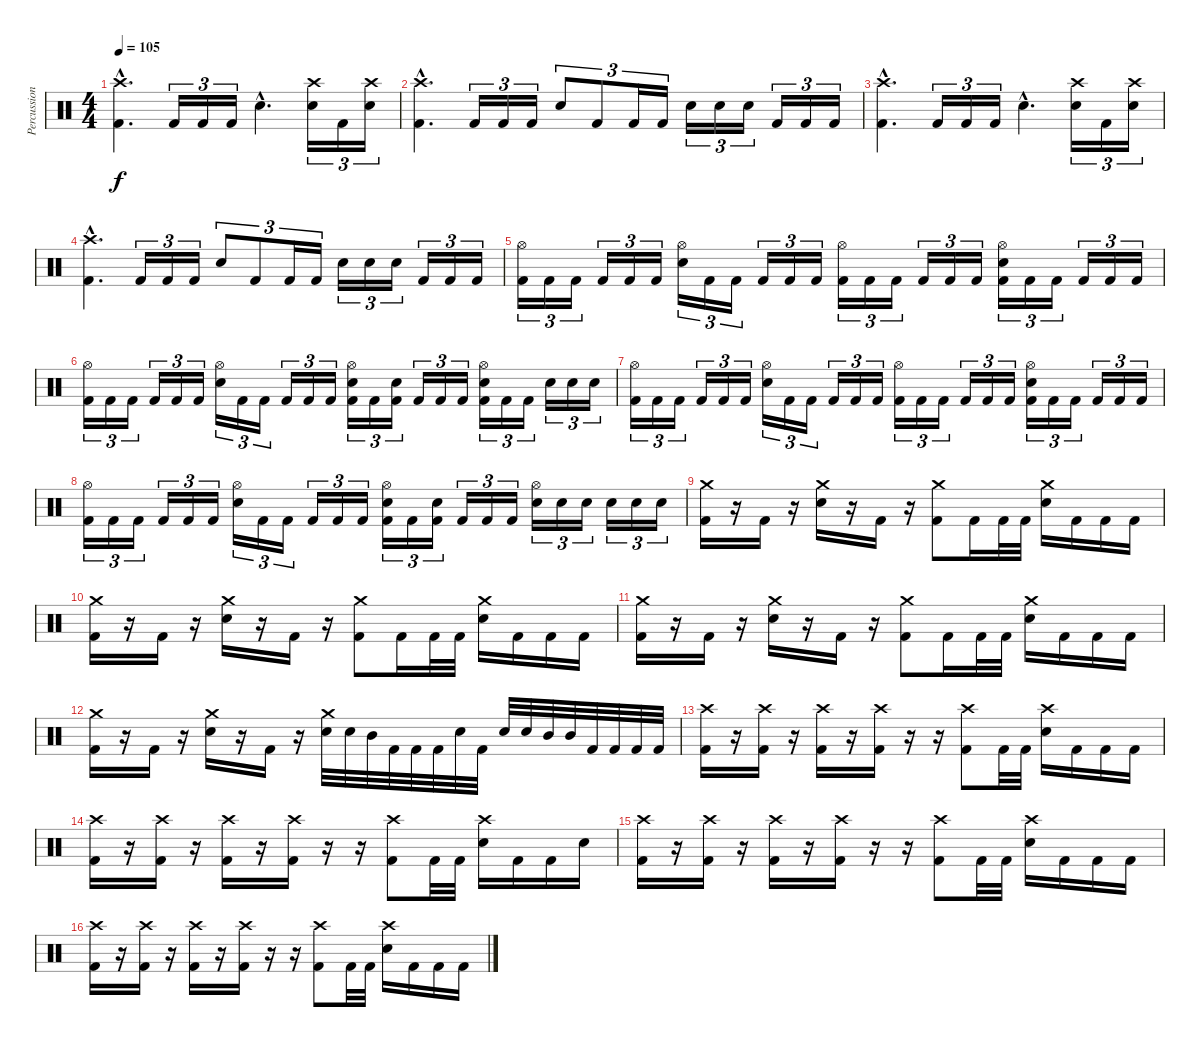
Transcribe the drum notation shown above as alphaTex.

\track ("Percussion" "Percussion") {instrument percussion}
\staff {score}
\articulation defaults
\ts (4 4)
\tempo 105
\clef neutral
\ks c
("Crash high (hit)"{hac} "Kick (hit) 2"{hac}).4{d dy f} "Kick (hit) 2".16{tu (3 2)} "Kick (hit) 2".16{tu (3 2)} "Kick (hit) 2".16{tu (3 2)} "Electric Snare (hit)"{hac}.4{d} ("Crash high (hit)" "Electric Snare (hit)").16{tu (3 2)} "Kick (hit) 2".16{tu (3 2)} ("Crash high (hit)" "Electric Snare (hit)").16{tu (3 2)} |
("Crash high (hit)"{hac} "Kick (hit) 2"{hac}).4{d} "Kick (hit) 2".16{tu (3 2)} "Kick (hit) 2".16{tu (3 2)} "Kick (hit) 2".16{tu (3 2)} "Electric Snare (hit)".8{tu (3 2)} "Kick (hit) 2".8{tu (3 2)} "Kick (hit) 2".16{tu (3 2)} "Kick (hit) 2".16{tu (3 2)} "Electric Snare (hit)".16{tu (3 2)} "Electric Snare (hit)".16{tu (3 2)} "Electric Snare (hit)".16{tu (3 2)} "Kick (hit) 2".16{tu (3 2)} "Kick (hit) 2".16{tu (3 2)} "Kick (hit) 2".16{tu (3 2)} |
("Crash high (hit)"{hac} "Kick (hit) 2"{hac}).4{d} "Kick (hit) 2".16{tu (3 2)} "Kick (hit) 2".16{tu (3 2)} "Kick (hit) 2".16{tu (3 2)} "Electric Snare (hit)"{hac}.4{d} ("Crash high (hit)" "Electric Snare (hit)").16{tu (3 2)} "Kick (hit) 2".16{tu (3 2)} ("Crash high (hit)" "Electric Snare (hit)").16{tu (3 2)} |
("Crash high (hit)"{hac} "Kick (hit) 2"{hac}).4{d} "Kick (hit) 2".16{tu (3 2)} "Kick (hit) 2".16{tu (3 2)} "Kick (hit) 2".16{tu (3 2)} "Electric Snare (hit)".8{tu (3 2)} "Kick (hit) 2".8{tu (3 2)} "Kick (hit) 2".16{tu (3 2)} "Kick (hit) 2".16{tu (3 2)} "Electric Snare (hit)".16{tu (3 2)} "Electric Snare (hit)".16{tu (3 2)} "Electric Snare (hit)".16{tu (3 2)} "Kick (hit) 2".16{tu (3 2)} "Kick (hit) 2".16{tu (3 2)} "Kick (hit) 2".16{tu (3 2)} |
("Hi-Hat (open)" "Kick (hit) 2").16{tu (3 2)} "Kick (hit) 2".16{tu (3 2)} "Kick (hit) 2".16{tu (3 2)} "Kick (hit) 2".16{tu (3 2)} "Kick (hit) 2".16{tu (3 2)} "Kick (hit) 2".16{tu (3 2)} ("Hi-Hat (open)" "Electric Snare (hit)").16{tu (3 2)} "Kick (hit) 2".16{tu (3 2)} "Kick (hit) 2".16{tu (3 2)} "Kick (hit) 2".16{tu (3 2)} "Kick (hit) 2".16{tu (3 2)} "Kick (hit) 2".16{tu (3 2)} ("Hi-Hat (open)" "Kick (hit) 2").16{tu (3 2)} "Kick (hit) 2".16{tu (3 2)} "Kick (hit) 2".16{tu (3 2)} "Kick (hit) 2".16{tu (3 2)} "Kick (hit) 2".16{tu (3 2)} "Kick (hit) 2".16{tu (3 2)} ("Hi-Hat (open)" "Electric Snare (hit)" "Kick (hit) 2").16{tu (3 2)} "Kick (hit) 2".16{tu (3 2)} "Kick (hit) 2".16{tu (3 2)} "Kick (hit) 2".16{tu (3 2)} "Kick (hit) 2".16{tu (3 2)} "Kick (hit) 2".16{tu (3 2)} |
("Hi-Hat (open)" "Kick (hit) 2").16{tu (3 2)} "Kick (hit) 2".16{tu (3 2)} "Kick (hit) 2".16{tu (3 2)} "Kick (hit) 2".16{tu (3 2)} "Kick (hit) 2".16{tu (3 2)} "Kick (hit) 2".16{tu (3 2)} ("Hi-Hat (open)" "Electric Snare (hit)").16{tu (3 2)} "Kick (hit) 2".16{tu (3 2)} "Kick (hit) 2".16{tu (3 2)} "Kick (hit) 2".16{tu (3 2)} "Kick (hit) 2".16{tu (3 2)} "Kick (hit) 2".16{tu (3 2)} ("Hi-Hat (open)" "Electric Snare (hit)" "Kick (hit) 2").16{tu (3 2)} "Kick (hit) 2".16{tu (3 2)} ("Electric Snare (hit)" "Kick (hit) 2").16{tu (3 2)} "Kick (hit) 2".16{tu (3 2)} "Kick (hit) 2".16{tu (3 2)} "Kick (hit) 2".16{tu (3 2)} ("Hi-Hat (open)" "Electric Snare (hit)" "Kick (hit) 2").16{tu (3 2)} "Kick (hit) 2".16{tu (3 2)} "Kick (hit) 2".16{tu (3 2)} "Electric Snare (hit)".16{tu (3 2)} "Electric Snare (hit)".16{tu (3 2)} "Electric Snare (hit)".16{tu (3 2)} |
("Hi-Hat (open)" "Kick (hit) 2").16{tu (3 2)} "Kick (hit) 2".16{tu (3 2)} "Kick (hit) 2".16{tu (3 2)} "Kick (hit) 2".16{tu (3 2)} "Kick (hit) 2".16{tu (3 2)} "Kick (hit) 2".16{tu (3 2)} ("Hi-Hat (open)" "Electric Snare (hit)").16{tu (3 2)} "Kick (hit) 2".16{tu (3 2)} "Kick (hit) 2".16{tu (3 2)} "Kick (hit) 2".16{tu (3 2)} "Kick (hit) 2".16{tu (3 2)} "Kick (hit) 2".16{tu (3 2)} ("Hi-Hat (open)" "Kick (hit) 2").16{tu (3 2)} "Kick (hit) 2".16{tu (3 2)} "Kick (hit) 2".16{tu (3 2)} "Kick (hit) 2".16{tu (3 2)} "Kick (hit) 2".16{tu (3 2)} "Kick (hit) 2".16{tu (3 2)} ("Hi-Hat (open)" "Electric Snare (hit)" "Kick (hit) 2").16{tu (3 2)} "Kick (hit) 2".16{tu (3 2)} "Kick (hit) 2".16{tu (3 2)} "Kick (hit) 2".16{tu (3 2)} "Kick (hit) 2".16{tu (3 2)} "Kick (hit) 2".16{tu (3 2)} |
("Hi-Hat (open)" "Kick (hit) 2").16{tu (3 2)} "Kick (hit) 2".16{tu (3 2)} "Kick (hit) 2".16{tu (3 2)} "Kick (hit) 2".16{tu (3 2)} "Kick (hit) 2".16{tu (3 2)} "Kick (hit) 2".16{tu (3 2)} ("Hi-Hat (open)" "Electric Snare (hit)").16{tu (3 2)} "Kick (hit) 2".16{tu (3 2)} "Kick (hit) 2".16{tu (3 2)} "Kick (hit) 2".16{tu (3 2)} "Kick (hit) 2".16{tu (3 2)} "Kick (hit) 2".16{tu (3 2)} ("Hi-Hat (open)" "Electric Snare (hit)" "Kick (hit) 2").16{tu (3 2)} "Kick (hit) 2".16{tu (3 2)} ("Electric Snare (hit)" "Kick (hit) 2").16{tu (3 2)} "Kick (hit) 2".16{tu (3 2)} "Kick (hit) 2".16{tu (3 2)} "Kick (hit) 2".16{tu (3 2)} ("Hi-Hat (open)" "Electric Snare (hit)").16{tu (3 2)} "Electric Snare (hit)".16{tu (3 2)} "Electric Snare (hit)".16{tu (3 2)} "Electric Snare (hit)".16{tu (3 2)} "Electric Snare (hit)".16{tu (3 2)} "Electric Snare (hit)".16{tu (3 2)} |
("Crash medium (hit)" "Kick (hit) 2").16 r.16 "Kick (hit) 2".16 r.16 ("Crash medium (hit)" "Electric Snare (hit)").16 r.16 "Kick (hit) 2".16 r.16 ("Crash medium (hit)" "Kick (hit) 2").8 "Kick (hit) 2".16 "Kick (hit) 2".32 "Kick (hit) 2".32 ("Crash medium (hit)" "Electric Snare (hit)").16 "Kick (hit) 2".16 "Kick (hit) 2".16 "Kick (hit) 2".16 |
("Crash medium (hit)" "Kick (hit) 2").16 r.16 "Kick (hit) 2".16 r.16 ("Crash medium (hit)" "Electric Snare (hit)").16 r.16 "Kick (hit) 2".16 r.16 ("Crash medium (hit)" "Kick (hit) 2").8 "Kick (hit) 2".16 "Kick (hit) 2".32 "Kick (hit) 2".32 ("Crash medium (hit)" "Electric Snare (hit)").16 "Kick (hit) 2".16 "Kick (hit) 2".16 "Kick (hit) 2".16 |
("Crash medium (hit)" "Kick (hit) 2").16 r.16 "Kick (hit) 2".16 r.16 ("Crash medium (hit)" "Electric Snare (hit)").16 r.16 "Kick (hit) 2".16 r.16 ("Crash medium (hit)" "Kick (hit) 2").8 "Kick (hit) 2".16 "Kick (hit) 2".32 "Kick (hit) 2".32 ("Crash medium (hit)" "Electric Snare (hit)").16 "Kick (hit) 2".16 "Kick (hit) 2".16 "Kick (hit) 2".16 |
("Crash medium (hit)" "Kick (hit) 2").16 r.16 "Kick (hit) 2".16 r.16 ("Crash medium (hit)" "Electric Snare (hit)").16 r.16 "Kick (hit) 2".16 r.16 ("Crash medium (hit)" "Electric Snare (hit)").32 "Electric Snare (hit)".32 "Mid Tom (hit)".32 "Kick (hit) 2".32 "Kick (hit) 2".32 "Kick (hit) 2".32 "Electric Snare (hit)".32 "Kick (hit) 2".32 "Electric Snare (hit)".32 "Electric Snare (hit)".32 "Mid Tom (hit)".32 "Mid Tom (hit)".32 "Kick (hit) 2".32 "Kick (hit) 2".32 "Kick (hit) 2".32 "Kick (hit) 2".32 |
("Crash high (hit)" "Kick (hit) 2").16 r.16 ("Crash high (hit)" "Kick (hit) 2").16 r.16 ("Crash high (hit)" "Kick (hit) 2").16 r.16 ("Crash high (hit)" "Kick (hit) 2").16 r.16 r.16 ("Crash high (hit)" "Kick (hit) 2").8 "Kick (hit) 2".32 "Kick (hit) 2".32 ("Crash high (hit)" "Electric Snare (hit)").16 "Kick (hit) 2".16 "Kick (hit) 2".16 "Kick (hit) 2".16 |
("Crash high (hit)" "Kick (hit) 2").16 r.16 ("Crash high (hit)" "Kick (hit) 2").16 r.16 ("Crash high (hit)" "Kick (hit) 2").16 r.16 ("Crash high (hit)" "Kick (hit) 2").16 r.16 r.16 ("Crash high (hit)" "Kick (hit) 2").8 "Kick (hit) 2".32 "Kick (hit) 2".32 ("Crash high (hit)" "Electric Snare (hit)").16 "Kick (hit) 2".16 "Kick (hit) 2".16 "Electric Snare (hit)".16 |
("Crash high (hit)" "Kick (hit) 2").16 r.16 ("Crash high (hit)" "Kick (hit) 2").16 r.16 ("Crash high (hit)" "Kick (hit) 2").16 r.16 ("Crash high (hit)" "Kick (hit) 2").16 r.16 r.16 ("Crash high (hit)" "Kick (hit) 2").8 "Kick (hit) 2".32 "Kick (hit) 2".32 ("Crash high (hit)" "Electric Snare (hit)").16 "Kick (hit) 2".16 "Kick (hit) 2".16 "Kick (hit) 2".16 |
("Crash high (hit)" "Kick (hit) 2").16 r.16 ("Crash high (hit)" "Kick (hit) 2").16 r.16 ("Crash high (hit)" "Kick (hit) 2").16 r.16 ("Crash high (hit)" "Kick (hit) 2").16 r.16 r.16 ("Crash high (hit)" "Kick (hit) 2").8 "Kick (hit) 2".32 "Kick (hit) 2".32 ("Crash high (hit)" "Electric Snare (hit)").16 "Kick (hit) 2".16 "Kick (hit) 2".16 "Kick (hit) 2".16
